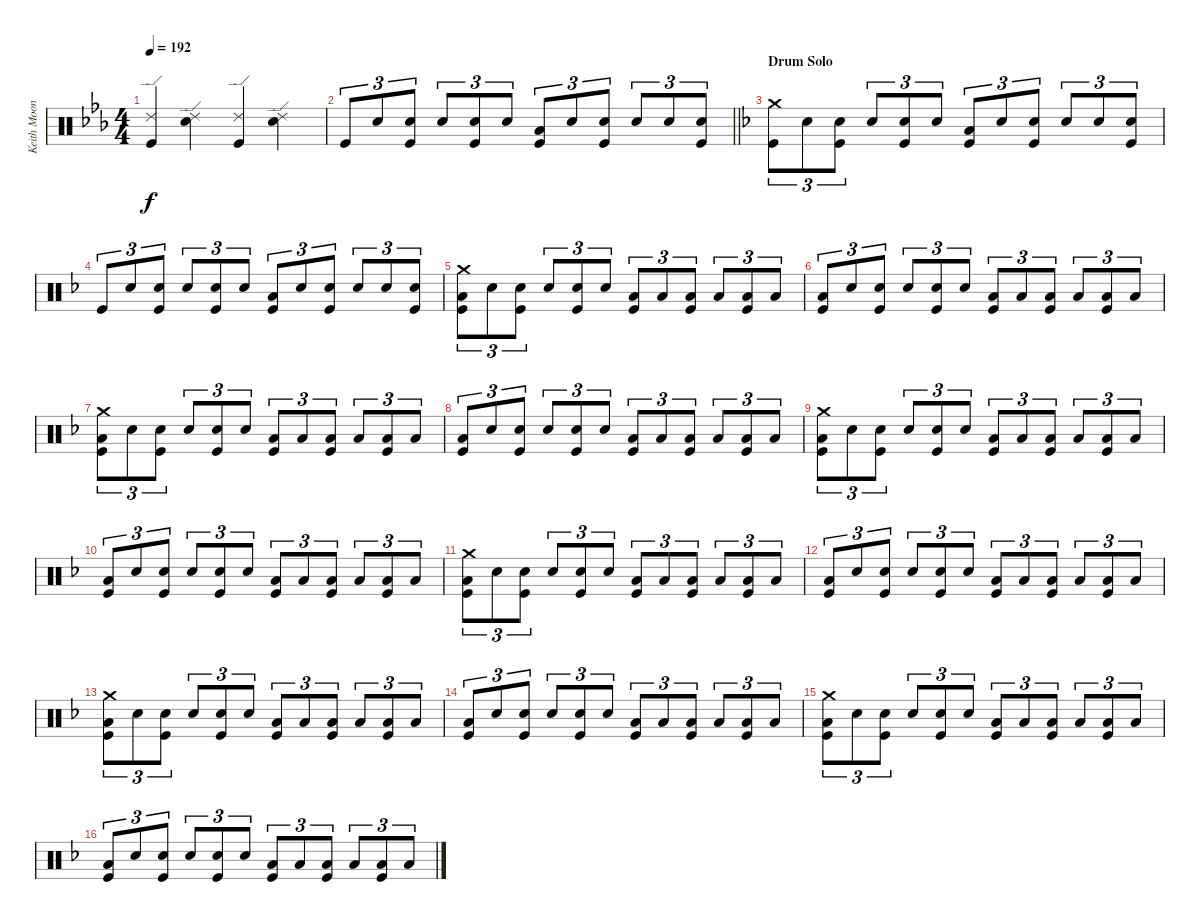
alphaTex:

\track ("Keith Moon - Drums" "Keith Moon") {instrument percussion}
\staff {score}
\articulation defaults
\ts (4 4)
\tempo 192
\clef neutral
\ks eb
("Ride (edge) 2" "Kick (hit)").4{dy f} ("Ride (edge) 2" "Electric Snare (hit)").4 ("Ride (edge) 2" "Kick (hit)").4 ("Ride (edge) 2" "Electric Snare (hit)").4 |
\barLineRight lightlight "Kick (hit)".8{tu (3 2)} "Electric Snare (hit)".8{tu (3 2)}
("Electric Snare (hit)" "Kick (hit)").8{tu (3 2)} "Electric Snare (hit)".8{tu (3 2)} ("Electric Snare (hit)" "Kick (hit)").8{tu (3 2)} "Electric Snare (hit)".8{tu (3 2)} ("Low Floor Tom (hit)" "Kick (hit)").8{tu (3 2)} "Electric Snare (hit)".8{tu (3 2)} ("Electric Snare (hit)" "Kick (hit)").8{tu (3 2)} "Electric Snare (hit)".8{tu (3 2)} "Electric Snare (hit)".8{tu (3 2)} ("Electric Snare (hit)" "Kick (hit)").8{tu (3 2)} |
\section ("" "Drum Solo")
\ks f
("Crash medium (hit)" "Kick (hit)").8{tu (3 2)} "Electric Snare (hit)".8{tu (3 2)} ("Electric Snare (hit)" "Kick (hit)").8{tu (3 2)} "Electric Snare (hit)".8{tu (3 2)} ("Electric Snare (hit)" "Kick (hit)").8{tu (3 2)} "Electric Snare (hit)".8{tu (3 2)} ("Low Floor Tom (hit)" "Kick (hit)").8{tu (3 2)} "Electric Snare (hit)".8{tu (3 2)} ("Electric Snare (hit)" "Kick (hit)").8{tu (3 2)} "Electric Snare (hit)".8{tu (3 2)} "Electric Snare (hit)".8{tu (3 2)} ("Electric Snare (hit)" "Kick (hit)").8{tu (3 2)} |
"Kick (hit)".8{tu (3 2)} "Electric Snare (hit)".8{tu (3 2)} ("Electric Snare (hit)" "Kick (hit)").8{tu (3 2)} "Electric Snare (hit)".8{tu (3 2)} ("Electric Snare (hit)" "Kick (hit)").8{tu (3 2)} "Electric Snare (hit)".8{tu (3 2)} ("Low Floor Tom (hit)" "Kick (hit)").8{tu (3 2)} "Electric Snare (hit)".8{tu (3 2)} ("Electric Snare (hit)" "Kick (hit)").8{tu (3 2)} "Electric Snare (hit)".8{tu (3 2)} "Electric Snare (hit)".8{tu (3 2)} ("Electric Snare (hit)" "Kick (hit)").8{tu (3 2)} |
("Crash medium (hit)" "Low Floor Tom (hit)" "Kick (hit)").8{tu (3 2)} "Electric Snare (hit)".8{tu (3 2)} ("Electric Snare (hit)" "Kick (hit)").8{tu (3 2)} "Electric Snare (hit)".8{tu (3 2)} ("Electric Snare (hit)" "Kick (hit)").8{tu (3 2)} "Electric Snare (hit)".8{tu (3 2)} ("Low Floor Tom (hit)" "Kick (hit)").8{tu (3 2)} "Low Floor Tom (hit)".8{tu (3 2)} ("Low Floor Tom (hit)" "Kick (hit)").8{tu (3 2)} "Low Floor Tom (hit)".8{tu (3 2)} ("Low Floor Tom (hit)" "Kick (hit)").8{tu (3 2)} "Low Floor Tom (hit)".8{tu (3 2)} |
("Low Floor Tom (hit)" "Kick (hit)").8{tu (3 2)} "Electric Snare (hit)".8{tu (3 2)} ("Electric Snare (hit)" "Kick (hit)").8{tu (3 2)} "Electric Snare (hit)".8{tu (3 2)} ("Electric Snare (hit)" "Kick (hit)").8{tu (3 2)} "Electric Snare (hit)".8{tu (3 2)} ("Low Floor Tom (hit)" "Kick (hit)").8{tu (3 2)} "Low Floor Tom (hit)".8{tu (3 2)} ("Low Floor Tom (hit)" "Kick (hit)").8{tu (3 2)} "Low Floor Tom (hit)".8{tu (3 2)} ("Low Floor Tom (hit)" "Kick (hit)").8{tu (3 2)} "Low Floor Tom (hit)".8{tu (3 2)} |
("Crash medium (hit)" "Low Floor Tom (hit)" "Kick (hit)").8{tu (3 2)} "Electric Snare (hit)".8{tu (3 2)} ("Electric Snare (hit)" "Kick (hit)").8{tu (3 2)} "Electric Snare (hit)".8{tu (3 2)} ("Electric Snare (hit)" "Kick (hit)").8{tu (3 2)} "Electric Snare (hit)".8{tu (3 2)} ("Low Floor Tom (hit)" "Kick (hit)").8{tu (3 2)} "Low Floor Tom (hit)".8{tu (3 2)} ("Low Floor Tom (hit)" "Kick (hit)").8{tu (3 2)} "Low Floor Tom (hit)".8{tu (3 2)} ("Low Floor Tom (hit)" "Kick (hit)").8{tu (3 2)} "Low Floor Tom (hit)".8{tu (3 2)} |
("Low Floor Tom (hit)" "Kick (hit)").8{tu (3 2)} "Electric Snare (hit)".8{tu (3 2)} ("Electric Snare (hit)" "Kick (hit)").8{tu (3 2)} "Electric Snare (hit)".8{tu (3 2)} ("Electric Snare (hit)" "Kick (hit)").8{tu (3 2)} "Electric Snare (hit)".8{tu (3 2)} ("Low Floor Tom (hit)" "Kick (hit)").8{tu (3 2)} "Low Floor Tom (hit)".8{tu (3 2)} ("Low Floor Tom (hit)" "Kick (hit)").8{tu (3 2)} "Low Floor Tom (hit)".8{tu (3 2)} ("Low Floor Tom (hit)" "Kick (hit)").8{tu (3 2)} "Low Floor Tom (hit)".8{tu (3 2)} |
("Crash medium (hit)" "Low Floor Tom (hit)" "Kick (hit)").8{tu (3 2)} "Electric Snare (hit)".8{tu (3 2)} ("Electric Snare (hit)" "Kick (hit)").8{tu (3 2)} "Electric Snare (hit)".8{tu (3 2)} ("Electric Snare (hit)" "Kick (hit)").8{tu (3 2)} "Electric Snare (hit)".8{tu (3 2)} ("Low Floor Tom (hit)" "Kick (hit)").8{tu (3 2)} "Low Floor Tom (hit)".8{tu (3 2)} ("Low Floor Tom (hit)" "Kick (hit)").8{tu (3 2)} "Low Floor Tom (hit)".8{tu (3 2)} ("Low Floor Tom (hit)" "Kick (hit)").8{tu (3 2)} "Low Floor Tom (hit)".8{tu (3 2)} |
("Low Floor Tom (hit)" "Kick (hit)").8{tu (3 2)} "Electric Snare (hit)".8{tu (3 2)} ("Electric Snare (hit)" "Kick (hit)").8{tu (3 2)} "Electric Snare (hit)".8{tu (3 2)} ("Electric Snare (hit)" "Kick (hit)").8{tu (3 2)} "Electric Snare (hit)".8{tu (3 2)} ("Low Floor Tom (hit)" "Kick (hit)").8{tu (3 2)} "Low Floor Tom (hit)".8{tu (3 2)} ("Low Floor Tom (hit)" "Kick (hit)").8{tu (3 2)} "Low Floor Tom (hit)".8{tu (3 2)} ("Low Floor Tom (hit)" "Kick (hit)").8{tu (3 2)} "Low Floor Tom (hit)".8{tu (3 2)} |
("Crash medium (hit)" "Low Floor Tom (hit)" "Kick (hit)").8{tu (3 2)} "Electric Snare (hit)".8{tu (3 2)} ("Electric Snare (hit)" "Kick (hit)").8{tu (3 2)} "Electric Snare (hit)".8{tu (3 2)} ("Electric Snare (hit)" "Kick (hit)").8{tu (3 2)} "Electric Snare (hit)".8{tu (3 2)} ("Low Floor Tom (hit)" "Kick (hit)").8{tu (3 2)} "Low Floor Tom (hit)".8{tu (3 2)} ("Low Floor Tom (hit)" "Kick (hit)").8{tu (3 2)} "Low Floor Tom (hit)".8{tu (3 2)} ("Low Floor Tom (hit)" "Kick (hit)").8{tu (3 2)} "Low Floor Tom (hit)".8{tu (3 2)} |
("Low Floor Tom (hit)" "Kick (hit)").8{tu (3 2)} "Electric Snare (hit)".8{tu (3 2)} ("Electric Snare (hit)" "Kick (hit)").8{tu (3 2)} "Electric Snare (hit)".8{tu (3 2)} ("Electric Snare (hit)" "Kick (hit)").8{tu (3 2)} "Electric Snare (hit)".8{tu (3 2)} ("Low Floor Tom (hit)" "Kick (hit)").8{tu (3 2)} "Low Floor Tom (hit)".8{tu (3 2)} ("Low Floor Tom (hit)" "Kick (hit)").8{tu (3 2)} "Low Floor Tom (hit)".8{tu (3 2)} ("Low Floor Tom (hit)" "Kick (hit)").8{tu (3 2)} "Low Floor Tom (hit)".8{tu (3 2)} |
("Crash medium (hit)" "Low Floor Tom (hit)" "Kick (hit)").8{tu (3 2)} "Electric Snare (hit)".8{tu (3 2)} ("Electric Snare (hit)" "Kick (hit)").8{tu (3 2)} "Electric Snare (hit)".8{tu (3 2)} ("Electric Snare (hit)" "Kick (hit)").8{tu (3 2)} "Electric Snare (hit)".8{tu (3 2)} ("Low Floor Tom (hit)" "Kick (hit)").8{tu (3 2)} "Low Floor Tom (hit)".8{tu (3 2)} ("Low Floor Tom (hit)" "Kick (hit)").8{tu (3 2)} "Low Floor Tom (hit)".8{tu (3 2)} ("Low Floor Tom (hit)" "Kick (hit)").8{tu (3 2)} "Low Floor Tom (hit)".8{tu (3 2)} |
("Low Floor Tom (hit)" "Kick (hit)").8{tu (3 2)} "Electric Snare (hit)".8{tu (3 2)} ("Electric Snare (hit)" "Kick (hit)").8{tu (3 2)} "Electric Snare (hit)".8{tu (3 2)} ("Electric Snare (hit)" "Kick (hit)").8{tu (3 2)} "Electric Snare (hit)".8{tu (3 2)} ("Low Floor Tom (hit)" "Kick (hit)").8{tu (3 2)} "Low Floor Tom (hit)".8{tu (3 2)} ("Low Floor Tom (hit)" "Kick (hit)").8{tu (3 2)} "Low Floor Tom (hit)".8{tu (3 2)} ("Low Floor Tom (hit)" "Kick (hit)").8{tu (3 2)} "Low Floor Tom (hit)".8{tu (3 2)} |
("Crash medium (hit)" "Low Floor Tom (hit)" "Kick (hit)").8{tu (3 2)} "Electric Snare (hit)".8{tu (3 2)} ("Electric Snare (hit)" "Kick (hit)").8{tu (3 2)} "Electric Snare (hit)".8{tu (3 2)} ("Electric Snare (hit)" "Kick (hit)").8{tu (3 2)} "Electric Snare (hit)".8{tu (3 2)} ("Low Floor Tom (hit)" "Kick (hit)").8{tu (3 2)} "Low Floor Tom (hit)".8{tu (3 2)} ("Low Floor Tom (hit)" "Kick (hit)").8{tu (3 2)} "Low Floor Tom (hit)".8{tu (3 2)} ("Low Floor Tom (hit)" "Kick (hit)").8{tu (3 2)} "Low Floor Tom (hit)".8{tu (3 2)} |
("Low Floor Tom (hit)" "Kick (hit)").8{tu (3 2)} "Electric Snare (hit)".8{tu (3 2)} ("Electric Snare (hit)" "Kick (hit)").8{tu (3 2)} "Electric Snare (hit)".8{tu (3 2)} ("Electric Snare (hit)" "Kick (hit)").8{tu (3 2)} "Electric Snare (hit)".8{tu (3 2)} ("Low Floor Tom (hit)" "Kick (hit)").8{tu (3 2)} "Low Floor Tom (hit)".8{tu (3 2)} ("Low Floor Tom (hit)" "Kick (hit)").8{tu (3 2)} "Low Floor Tom (hit)".8{tu (3 2)} ("Low Floor Tom (hit)" "Kick (hit)").8{tu (3 2)} "Low Floor Tom (hit)".8{tu (3 2)}
